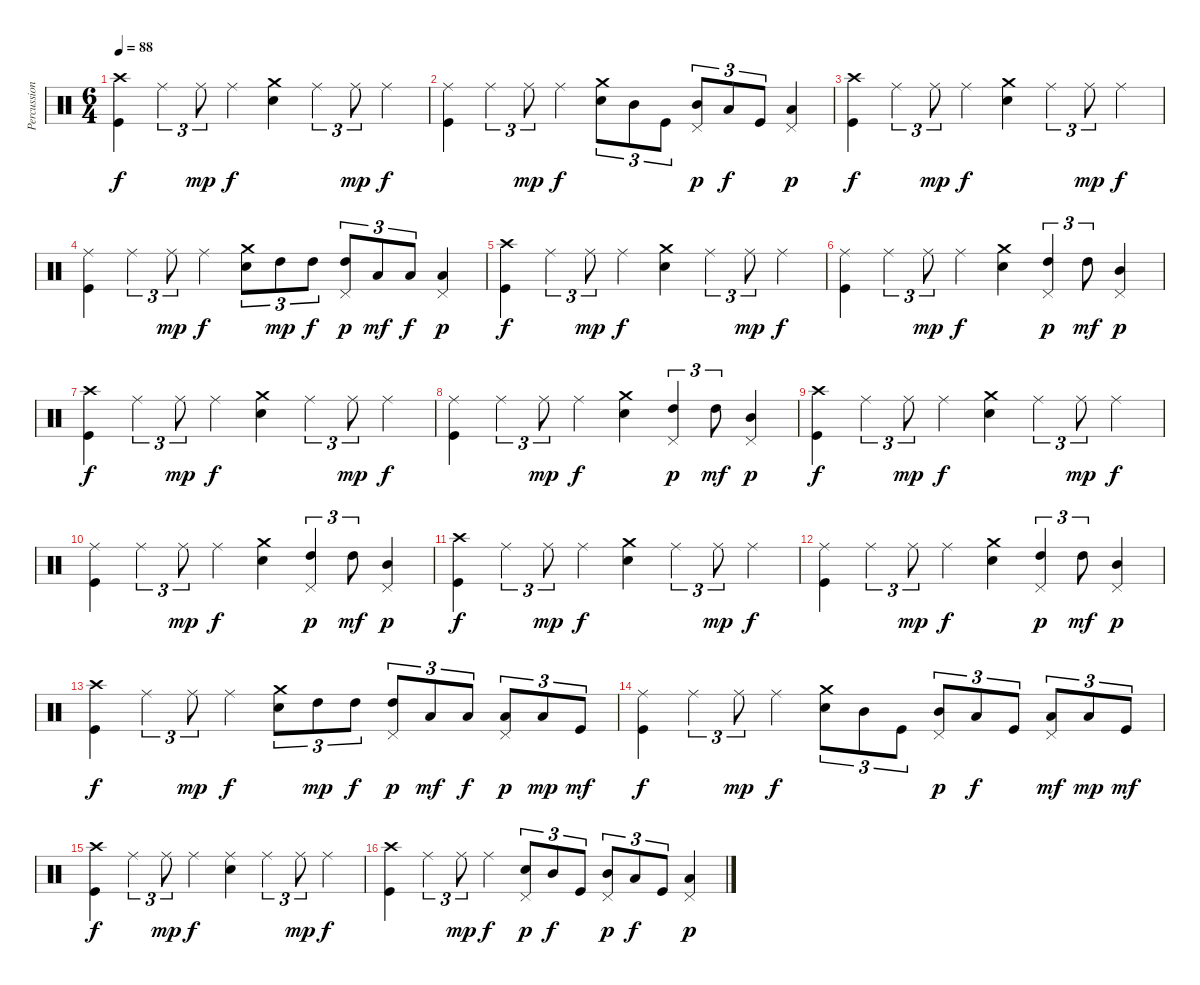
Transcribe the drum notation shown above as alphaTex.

\track ("Percussion" "Percussion") {instrument percussion}
\staff {score}
\articulation defaults
\ts (6 4)
\tempo 88
\tempo 112
\tempo 88
\clef neutral
\ks c
("Crash high (hit)" "Kick (hit)").4{dy f} "Ride (middle)".4{tu (3 2)} "Ride (middle)".8{tu (3 2) dy mp} "Ride (middle)".4{dy f} ("Crash medium (hit)" "Snare (hit) 2").4 "Ride (middle)".4{tu (3 2)} "Ride (middle)".8{tu (3 2) dy mp} "Ride (middle)".4{dy f} |
("Ride (middle)" "Kick (hit)").4 "Ride (middle)".4{tu (3 2)} "Ride (middle)".8{tu (3 2) dy mp} "Ride (middle)".4{dy f} ("Crash medium (hit)" "Snare (hit) 2").8{tu (3 2)} "Mid Tom (hit)".8{tu (3 2)} "Kick (hit)".8{tu (3 2)} ("Pedal Hi-Hat (hit)" "Mid Tom (hit)").8{tu (3 2) dy p} "Low Tom (hit)".8{tu (3 2) dy f} "Kick (hit)".8{tu (3 2)} ("Pedal Hi-Hat (hit)" "Low Tom (hit)").4{dy p} |
("Crash high (hit)" "Kick (hit)").4{dy f} "Ride (middle)".4{tu (3 2)} "Ride (middle)".8{tu (3 2) dy mp} "Ride (middle)".4{dy f} ("Crash medium (hit)" "Snare (hit) 2").4 "Ride (middle)".4{tu (3 2)} "Ride (middle)".8{tu (3 2) dy mp} "Ride (middle)".4{dy f} |
("Ride (middle)" "Kick (hit)").4 "Ride (middle)".4{tu (3 2)} "Ride (middle)".8{tu (3 2) dy mp} "Ride (middle)".4{dy f} ("Crash medium (hit)" "Snare (hit) 2").8{tu (3 2)} "High Tom (hit)".8{tu (3 2) dy mp} "High Tom (hit)".8{tu (3 2) dy f} ("Pedal Hi-Hat (hit)" "High Tom (hit)").8{tu (3 2) dy p} "Low Tom (hit)".8{tu (3 2) dy mf} "Low Tom (hit)".8{tu (3 2) dy f} ("Pedal Hi-Hat (hit)" "Low Tom (hit)").4{dy p} |
("Crash high (hit)" "Kick (hit)").4{dy f} "Ride (middle)".4{tu (3 2)} "Ride (middle)".8{tu (3 2) dy mp} "Ride (middle)".4{dy f} ("Crash medium (hit)" "Snare (hit) 2").4 "Ride (middle)".4{tu (3 2)} "Ride (middle)".8{tu (3 2) dy mp} "Ride (middle)".4{dy f} |
("Ride (middle)" "Kick (hit)").4 "Ride (middle)".4{tu (3 2)} "Ride (middle)".8{tu (3 2) dy mp} "Ride (middle)".4{dy f} ("Crash medium (hit)" "Snare (hit) 2").4 ("Pedal Hi-Hat (hit)" "High Tom (hit)").4{tu (3 2) dy p} "High Tom (hit)".8{tu (3 2) dy mf} ("Pedal Hi-Hat (hit)" "Mid Tom (hit)").4{dy p} |
("Crash high (hit)" "Kick (hit)").4{dy f} "Ride (middle)".4{tu (3 2)} "Ride (middle)".8{tu (3 2) dy mp} "Ride (middle)".4{dy f} ("Crash medium (hit)" "Snare (hit) 2").4 "Ride (middle)".4{tu (3 2)} "Ride (middle)".8{tu (3 2) dy mp} "Ride (middle)".4{dy f} |
("Ride (middle)" "Kick (hit)").4 "Ride (middle)".4{tu (3 2)} "Ride (middle)".8{tu (3 2) dy mp} "Ride (middle)".4{dy f} ("Crash medium (hit)" "Snare (hit) 2").4 ("Pedal Hi-Hat (hit)" "High Tom (hit)").4{tu (3 2) dy p} "High Tom (hit)".8{tu (3 2) dy mf} ("Pedal Hi-Hat (hit)" "Mid Tom (hit)").4{dy p} |
("Crash high (hit)" "Kick (hit)").4{dy f} "Ride (middle)".4{tu (3 2)} "Ride (middle)".8{tu (3 2) dy mp} "Ride (middle)".4{dy f} ("Crash medium (hit)" "Snare (hit) 2").4 "Ride (middle)".4{tu (3 2)} "Ride (middle)".8{tu (3 2) dy mp} "Ride (middle)".4{dy f} |
("Ride (middle)" "Kick (hit)").4 "Ride (middle)".4{tu (3 2)} "Ride (middle)".8{tu (3 2) dy mp} "Ride (middle)".4{dy f} ("Crash medium (hit)" "Snare (hit) 2").4 ("Pedal Hi-Hat (hit)" "High Tom (hit)").4{tu (3 2) dy p} "High Tom (hit)".8{tu (3 2) dy mf} ("Pedal Hi-Hat (hit)" "Mid Tom (hit)").4{dy p} |
("Crash high (hit)" "Kick (hit)").4{dy f} "Ride (middle)".4{tu (3 2)} "Ride (middle)".8{tu (3 2) dy mp} "Ride (middle)".4{dy f} ("Crash medium (hit)" "Snare (hit) 2").4 "Ride (middle)".4{tu (3 2)} "Ride (middle)".8{tu (3 2) dy mp} "Ride (middle)".4{dy f} |
("Ride (middle)" "Kick (hit)").4 "Ride (middle)".4{tu (3 2)} "Ride (middle)".8{tu (3 2) dy mp} "Ride (middle)".4{dy f} ("Crash medium (hit)" "Snare (hit) 2").4 ("Pedal Hi-Hat (hit)" "High Tom (hit)").4{tu (3 2) dy p} "High Tom (hit)".8{tu (3 2) dy mf} ("Pedal Hi-Hat (hit)" "Mid Tom (hit)").4{dy p} |
("Crash high (hit)" "Kick (hit)").4{dy f} "Ride (middle)".4{tu (3 2)} "Ride (middle)".8{tu (3 2) dy mp} "Ride (middle)".4{dy f} ("Crash medium (hit)" "Snare (hit) 2").8{tu (3 2)} "High Tom (hit)".8{tu (3 2) dy mp} "High Tom (hit)".8{tu (3 2) dy f} ("Pedal Hi-Hat (hit)" "High Tom (hit)").8{tu (3 2) dy p} "Low Tom (hit)".8{tu (3 2) dy mf} "Low Tom (hit)".8{tu (3 2) dy f} ("Pedal Hi-Hat (hit)" "Low Tom (hit)").8{tu (3 2) dy p} "Low Tom (hit)".8{tu (3 2) dy mp} "Kick (hit)".8{tu (3 2) dy mf} |
("Ride (middle)" "Kick (hit)").4{dy f} "Ride (middle)".4{tu (3 2)} "Ride (middle)".8{tu (3 2) dy mp} "Ride (middle)".4{dy f} ("Crash medium (hit)" "Snare (hit) 2").8{tu (3 2)} "Mid Tom (hit)".8{tu (3 2)} "Kick (hit)".8{tu (3 2)} ("Pedal Hi-Hat (hit)" "Mid Tom (hit)").8{tu (3 2) dy p} "Low Tom (hit)".8{tu (3 2) dy f} "Kick (hit)".8{tu (3 2)} ("Pedal Hi-Hat (hit)" "Low Tom (hit)").8{tu (3 2) dy mf} "Low Tom (hit)".8{tu (3 2) dy mp} "Kick (hit)".8{tu (3 2) dy mf} |
("Crash high (hit)" "Kick (hit)").4{dy f} "Ride (middle)".4{tu (3 2)} "Ride (middle)".8{tu (3 2) dy mp} "Ride (middle)".4{dy f} ("Ride (middle)" "Snare (hit) 2").4 "Ride (middle)".4{tu (3 2)} "Ride (middle)".8{tu (3 2) dy mp} "Ride (middle)".4{dy f} |
("Crash high (hit)" "Kick (hit)").4 "Ride (middle)".4{tu (3 2)} "Ride (middle)".8{tu (3 2) dy mp} "Ride (middle)".4{dy f} ("Pedal Hi-Hat (hit)" "Snare (hit) 2").8{tu (3 2) dy p} "Mid Tom (hit)".8{tu (3 2) dy f} "Kick (hit)".8{tu (3 2)} ("Pedal Hi-Hat (hit)" "Mid Tom (hit)").8{tu (3 2) dy p} "Low Tom (hit)".8{tu (3 2) dy f} "Kick (hit)".8{tu (3 2)} ("Pedal Hi-Hat (hit)" "Low Tom (hit)").4{dy p}
